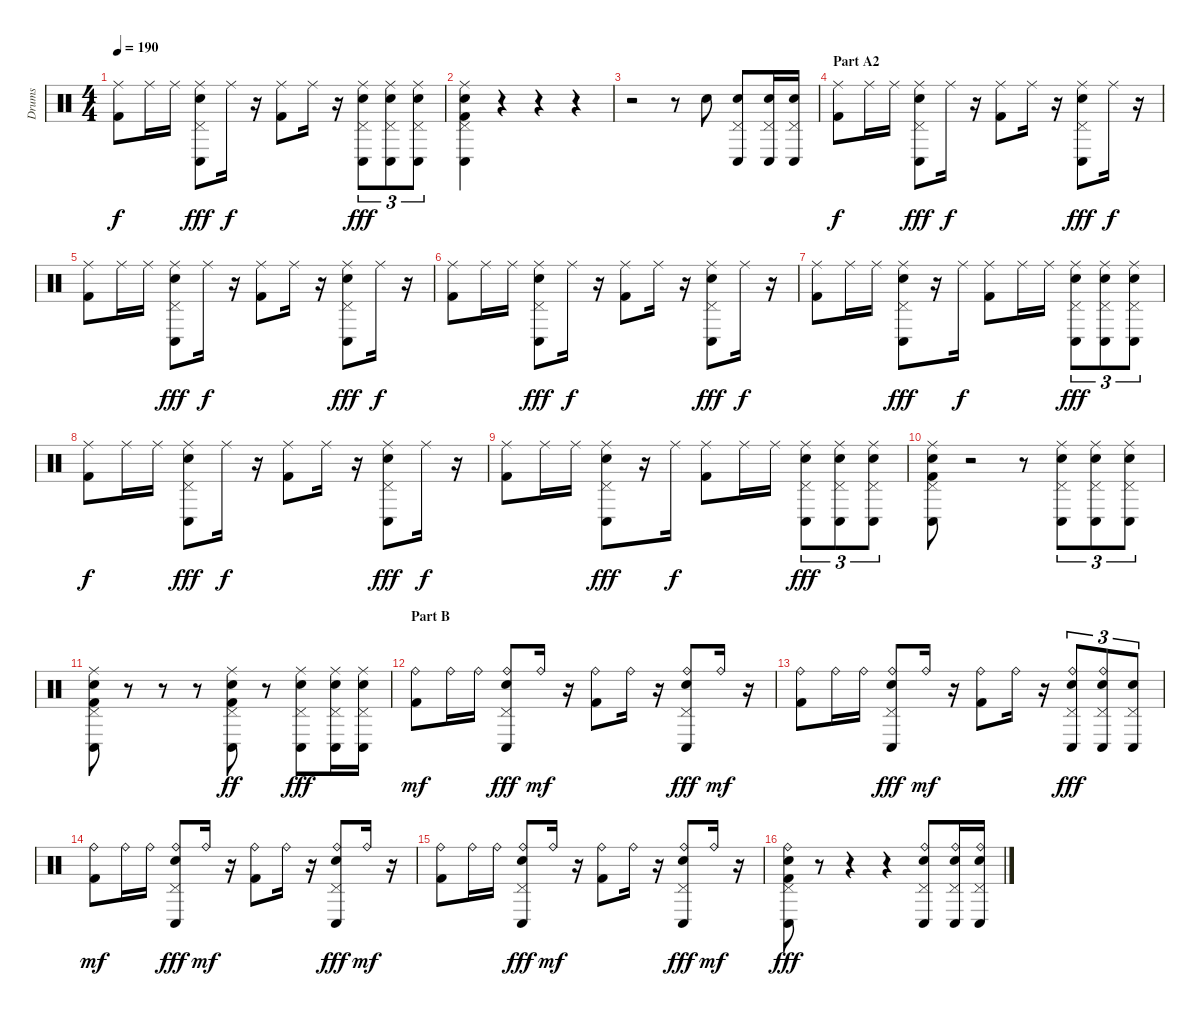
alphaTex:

\track ("Drums" "Drums") {instrument percussion}
\staff {score}
\articulation defaults
\ts (4 4)
\tempo 190
\clef neutral
\ks c
("Ride (middle)" "Kick (hit) 2").8{dy f} "Ride (middle)".16 "Ride (middle)".16 ("Ride (middle)" "Pedal Hi-Hat (hit)" "Conga low (hit)" "Electric Snare (hit)").8{dy fff} "Ride (middle)".16{dy f} r.16 ("Ride (middle)" "Kick (hit) 2").8 "Ride (middle)".16 r.16 ("Ride (middle)" "Pedal Hi-Hat (hit)" "Conga low (hit)" "Electric Snare (hit)").8{tu (3 2) dy fff} ("Ride (middle)" "Pedal Hi-Hat (hit)" "Conga low (hit)" "Electric Snare (hit)").8{tu (3 2)} ("Ride (middle)" "Pedal Hi-Hat (hit)" "Conga low (hit)" "Electric Snare (hit)").8{tu (3 2)} |
("Ride (middle)" "Pedal Hi-Hat (hit)" "Conga low (hit)" "Electric Snare (hit)" "Kick (hit) 2").4 r.4 r.4 r.4 |
r.2 r.8 "Electric Snare (hit)".8 ("Pedal Hi-Hat (hit)" "Conga low (hit)" "Electric Snare (hit)").8 ("Pedal Hi-Hat (hit)" "Conga low (hit)" "Electric Snare (hit)").16 ("Pedal Hi-Hat (hit)" "Conga low (hit)" "Electric Snare (hit)").16 |
\section ("" "Part A2")
("Ride (middle)" "Kick (hit) 2").8{dy f} "Ride (middle)".16 "Ride (middle)".16 ("Ride (middle)" "Pedal Hi-Hat (hit)" "Conga low (hit)" "Electric Snare (hit)").8{dy fff} "Ride (middle)".16{dy f} r.16 ("Ride (middle)" "Kick (hit) 2").8 "Ride (middle)".16 r.16 ("Ride (middle)" "Pedal Hi-Hat (hit)" "Conga low (hit)" "Electric Snare (hit)").8{dy fff} "Ride (middle)".16{dy f} r.16 |
("Ride (middle)" "Kick (hit) 2").8 "Ride (middle)".16 "Ride (middle)".16 ("Ride (middle)" "Pedal Hi-Hat (hit)" "Conga low (hit)" "Electric Snare (hit)").8{dy fff} "Ride (middle)".16{dy f} r.16 ("Ride (middle)" "Kick (hit) 2").8 "Ride (middle)".16 r.16 ("Ride (middle)" "Pedal Hi-Hat (hit)" "Conga low (hit)" "Electric Snare (hit)").8{dy fff} "Ride (middle)".16{dy f} r.16 |
("Ride (middle)" "Kick (hit) 2").8 "Ride (middle)".16 "Ride (middle)".16 ("Ride (middle)" "Pedal Hi-Hat (hit)" "Conga low (hit)" "Electric Snare (hit)").8{dy fff} "Ride (middle)".16{dy f} r.16 ("Ride (middle)" "Kick (hit) 2").8 "Ride (middle)".16 r.16 ("Ride (middle)" "Pedal Hi-Hat (hit)" "Conga low (hit)" "Electric Snare (hit)").8{dy fff} "Ride (middle)".16{dy f} r.16 |
("Ride (middle)" "Kick (hit) 2").8 "Ride (middle)".16 "Ride (middle)".16 ("Ride (middle)" "Pedal Hi-Hat (hit)" "Conga low (hit)" "Electric Snare (hit)").8{dy fff} r.16 "Ride (middle)".16{dy f} ("Ride (middle)" "Kick (hit) 2").8 "Ride (middle)".16 "Ride (middle)".16 ("Ride (middle)" "Pedal Hi-Hat (hit)" "Conga low (hit)" "Electric Snare (hit)").8{tu (3 2) dy fff} ("Ride (middle)" "Pedal Hi-Hat (hit)" "Conga low (hit)" "Electric Snare (hit)").8{tu (3 2)} ("Ride (middle)" "Pedal Hi-Hat (hit)" "Conga low (hit)" "Electric Snare (hit)").8{tu (3 2)} |
("Ride (middle)" "Kick (hit) 2").8{dy f} "Ride (middle)".16 "Ride (middle)".16 ("Ride (middle)" "Pedal Hi-Hat (hit)" "Conga low (hit)" "Electric Snare (hit)").8{dy fff} "Ride (middle)".16{dy f} r.16 ("Ride (middle)" "Kick (hit) 2").8 "Ride (middle)".16 r.16 ("Ride (middle)" "Pedal Hi-Hat (hit)" "Conga low (hit)" "Electric Snare (hit)").8{dy fff} "Ride (middle)".16{dy f} r.16 |
("Ride (middle)" "Kick (hit) 2").8 "Ride (middle)".16 "Ride (middle)".16 ("Ride (middle)" "Pedal Hi-Hat (hit)" "Conga low (hit)" "Electric Snare (hit)").8{dy fff} r.16 "Ride (middle)".16{dy f} ("Ride (middle)" "Kick (hit) 2").8 "Ride (middle)".16 "Ride (middle)".16 ("Ride (middle)" "Pedal Hi-Hat (hit)" "Conga low (hit)" "Electric Snare (hit)").8{tu (3 2) dy fff} ("Ride (middle)" "Pedal Hi-Hat (hit)" "Conga low (hit)" "Electric Snare (hit)").8{tu (3 2)} ("Ride (middle)" "Pedal Hi-Hat (hit)" "Conga low (hit)" "Electric Snare (hit)").8{tu (3 2)} |
("Ride (middle)" "Pedal Hi-Hat (hit)" "Conga low (hit)" "Electric Snare (hit)" "Kick (hit) 2").8 r.2 r.8 ("Ride (middle)" "Pedal Hi-Hat (hit)" "Conga low (hit)" "Electric Snare (hit)").8{tu (3 2)} ("Ride (middle)" "Pedal Hi-Hat (hit)" "Conga low (hit)" "Electric Snare (hit)").8{tu (3 2)} ("Ride (middle)" "Pedal Hi-Hat (hit)" "Conga low (hit)" "Electric Snare (hit)").8{tu (3 2)} |
("Ride (middle)" "Pedal Hi-Hat (hit)" "Conga low (hit)" "Electric Snare (hit)" "Kick (hit) 2").8 r.8 r.8 r.8 ("Ride (middle)" "Pedal Hi-Hat (hit)" "Conga low (hit)" "Electric Snare (hit)" "Kick (hit) 2").8{dy ff} r.8 ("Ride (middle)" "Pedal Hi-Hat (hit)" "Conga low (hit)" "Electric Snare (hit)").8{dy fff} ("Ride (middle)" "Pedal Hi-Hat (hit)" "Conga low (hit)" "Electric Snare (hit)").16 ("Ride (middle)" "Pedal Hi-Hat (hit)" "Conga low (hit)" "Electric Snare (hit)").16 |
\section ("" "Part B")
("Ride (bell)" "Kick (hit) 2").8{dy mf} "Ride (bell)".16 "Ride (bell)".16 ("Ride (bell)" "Pedal Hi-Hat (hit)" "Conga low (hit)" "Electric Snare (hit)").8{dy fff} "Ride (bell)".16{dy mf} r.16 ("Ride (bell)" "Kick (hit) 2").8 "Ride (bell)".16 r.16 ("Ride (bell)" "Pedal Hi-Hat (hit)" "Conga low (hit)" "Electric Snare (hit)").8{dy fff} "Ride (bell)".16{dy mf} r.16 |
("Ride (bell)" "Kick (hit) 2").8 "Ride (bell)".16 "Ride (bell)".16 ("Ride (bell)" "Pedal Hi-Hat (hit)" "Conga low (hit)" "Electric Snare (hit)").8{dy fff} "Ride (bell)".16{dy mf} r.16 ("Ride (bell)" "Kick (hit) 2").8 "Ride (bell)".16 r.16 ("Ride (bell)" "Pedal Hi-Hat (hit)" "Conga low (hit)" "Electric Snare (hit)").8{tu (3 2) dy fff} ("Ride (bell)" "Pedal Hi-Hat (hit)" "Conga low (hit)" "Electric Snare (hit)").8{tu (3 2)} ("Pedal Hi-Hat (hit)" "Conga low (hit)" "Electric Snare (hit)").8{tu (3 2)} |
("Ride (bell)" "Kick (hit) 2").8{dy mf} "Ride (bell)".16 "Ride (bell)".16 ("Ride (bell)" "Pedal Hi-Hat (hit)" "Conga low (hit)" "Electric Snare (hit)").8{dy fff} "Ride (bell)".16{dy mf} r.16 ("Ride (bell)" "Kick (hit) 2").8 "Ride (bell)".16 r.16 ("Ride (bell)" "Pedal Hi-Hat (hit)" "Conga low (hit)" "Electric Snare (hit)").8{dy fff} "Ride (bell)".16{dy mf} r.16 |
("Ride (bell)" "Kick (hit) 2").8 "Ride (bell)".16 "Ride (bell)".16 ("Ride (bell)" "Pedal Hi-Hat (hit)" "Conga low (hit)" "Electric Snare (hit)").8{dy fff} "Ride (bell)".16{dy mf} r.16 ("Ride (bell)" "Kick (hit) 2").8 "Ride (bell)".16 r.16 ("Ride (bell)" "Pedal Hi-Hat (hit)" "Conga low (hit)" "Electric Snare (hit)").8{dy fff} "Ride (bell)".16{dy mf} r.16 |
("Ride (bell)" "Pedal Hi-Hat (hit)" "Conga low (hit)" "Electric Snare (hit)" "Kick (hit) 2").8{dy fff} r.8 r.4 r.4 ("Ride (bell)" "Pedal Hi-Hat (hit)" "Conga low (hit)" "Electric Snare (hit)").8 ("Ride (bell)" "Pedal Hi-Hat (hit)" "Conga low (hit)" "Electric Snare (hit)").16 ("Ride (bell)" "Pedal Hi-Hat (hit)" "Conga low (hit)" "Electric Snare (hit)").16
